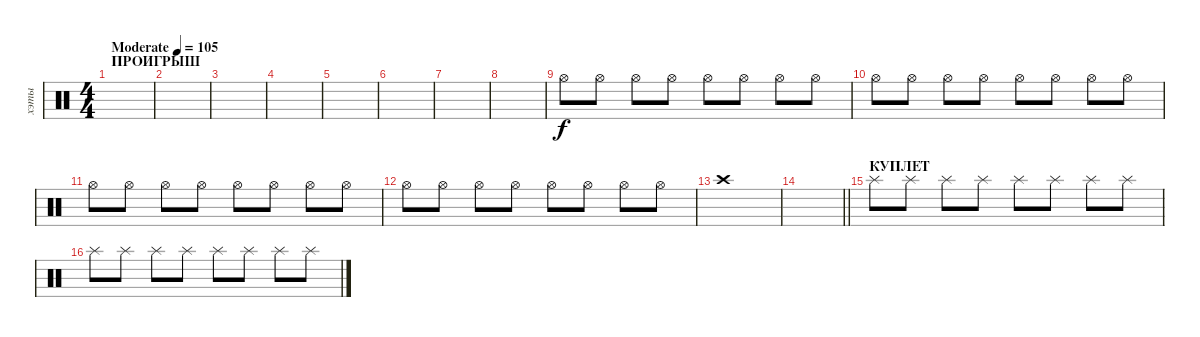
\track ("хэты" "хэты") {instrument percussion}
\staff {score}
\articulation defaults
\ts (4 4)
\section ("" "ПРОИГРЫШ")
\tempo (105 "Moderate")
\clef neutral
\ks c
|
|
|
|
|
|
|
|
"Hi-Hat (open)".8 "Hi-Hat (open)".8 "Hi-Hat (open)".8 "Hi-Hat (open)".8 "Hi-Hat (open)".8 "Hi-Hat (open)".8 "Hi-Hat (open)".8 "Hi-Hat (open)".8 |
"Hi-Hat (open)".8 "Hi-Hat (open)".8 "Hi-Hat (open)".8 "Hi-Hat (open)".8 "Hi-Hat (open)".8 "Hi-Hat (open)".8 "Hi-Hat (open)".8 "Hi-Hat (open)".8 |
"Hi-Hat (open)".8 "Hi-Hat (open)".8 "Hi-Hat (open)".8 "Hi-Hat (open)".8 "Hi-Hat (open)".8 "Hi-Hat (open)".8 "Hi-Hat (open)".8 "Hi-Hat (open)".8 |
"Hi-Hat (open)".8 "Hi-Hat (open)".8 "Hi-Hat (open)".8 "Hi-Hat (open)".8 "Hi-Hat (open)".8 "Hi-Hat (open)".8 "Hi-Hat (open)".8 "Hi-Hat (open)".8 |
"Crash high (hit)".1 |
\barLineRight lightlight
|
\section ("" "КУПЛЕТ")
"Splash (hit)".8 "Splash (hit)".8 "Splash (hit)".8 "Splash (hit)".8 "Splash (hit)".8 "Splash (hit)".8 "Splash (hit)".8 "Splash (hit)".8 |
"Splash (hit)".8 "Splash (hit)".8 "Splash (hit)".8 "Splash (hit)".8 "Splash (hit)".8 "Splash (hit)".8 "Splash (hit)".8 "Splash (hit)".8
